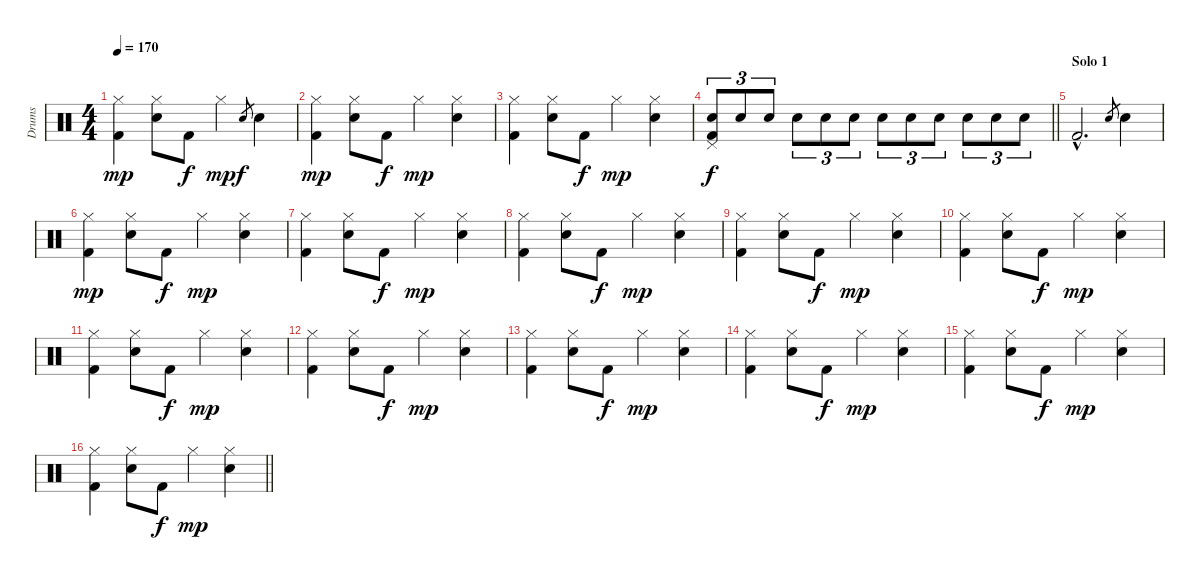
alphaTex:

\track ("Drums" "Drums") {instrument percussion}
\staff {score}
\articulation defaults
\ts (4 4)
\tempo 170
\clef neutral
\ks c
("Hi-Hat (closed)" "Kick (hit) 2").4{dy mp} ("Hi-Hat (closed)" "Electric Snare (hit)").8 "Kick (hit) 2".8{dy f} "Hi-Hat (closed)".4{dy mp} "Electric Snare (hit)".8{gr dy f} "Electric Snare (hit)".4 |
("Hi-Hat (closed)" "Kick (hit) 2").4{dy mp} ("Hi-Hat (closed)" "Electric Snare (hit)").8 "Kick (hit) 2".8{dy f} "Hi-Hat (closed)".4{dy mp} ("Hi-Hat (closed)" "Electric Snare (hit)").4 |
("Hi-Hat (closed)" "Kick (hit) 2").4 ("Hi-Hat (closed)" "Electric Snare (hit)").8 "Kick (hit) 2".8{dy f} "Hi-Hat (closed)".4{dy mp} ("Hi-Hat (closed)" "Electric Snare (hit)").4 |
\barLineRight lightlight
("Pedal Hi-Hat (hit)" "Electric Snare (hit)" "Kick (hit) 2").8{tu (3 2) dy f} "Electric Snare (hit)".8{tu (3 2)} "Electric Snare (hit)".8{tu (3 2)} "Electric Snare (hit)".8{tu (3 2)} "Electric Snare (hit)".8{tu (3 2)} "Electric Snare (hit)".8{tu (3 2)} "Electric Snare (hit)".8{tu (3 2)} "Electric Snare (hit)".8{tu (3 2)} "Electric Snare (hit)".8{tu (3 2)} "Electric Snare (hit)".8{tu (3 2)} "Electric Snare (hit)".8{tu (3 2)} "Electric Snare (hit)".8{tu (3 2)} |
\section ("" "Solo 1")
"Kick (hit) 2"{hac}.2{d} "Snare (hit) 2".8{gr} "Snare (hit) 2".4 |
("Hi-Hat (closed)" "Kick (hit) 2").4{dy mp} ("Hi-Hat (closed)" "Electric Snare (hit)").8 "Kick (hit) 2".8{dy f} "Hi-Hat (closed)".4{dy mp} ("Hi-Hat (closed)" "Electric Snare (hit)").4 |
("Hi-Hat (closed)" "Kick (hit) 2").4 ("Hi-Hat (closed)" "Electric Snare (hit)").8 "Kick (hit) 2".8{dy f} "Hi-Hat (closed)".4{dy mp} ("Hi-Hat (closed)" "Electric Snare (hit)").4 |
("Hi-Hat (closed)" "Kick (hit) 2").4 ("Hi-Hat (closed)" "Electric Snare (hit)").8 "Kick (hit) 2".8{dy f} "Hi-Hat (closed)".4{dy mp} ("Hi-Hat (closed)" "Electric Snare (hit)").4 |
("Hi-Hat (closed)" "Kick (hit) 2").4 ("Hi-Hat (closed)" "Electric Snare (hit)").8 "Kick (hit) 2".8{dy f} "Hi-Hat (closed)".4{dy mp} ("Hi-Hat (closed)" "Electric Snare (hit)").4 |
("Hi-Hat (closed)" "Kick (hit) 2").4 ("Hi-Hat (closed)" "Electric Snare (hit)").8 "Kick (hit) 2".8{dy f} "Hi-Hat (closed)".4{dy mp} ("Hi-Hat (closed)" "Electric Snare (hit)").4 |
("Hi-Hat (closed)" "Kick (hit) 2").4 ("Hi-Hat (closed)" "Electric Snare (hit)").8 "Kick (hit) 2".8{dy f} "Hi-Hat (closed)".4{dy mp} ("Hi-Hat (closed)" "Electric Snare (hit)").4 |
("Hi-Hat (closed)" "Kick (hit) 2").4 ("Hi-Hat (closed)" "Electric Snare (hit)").8 "Kick (hit) 2".8{dy f} "Hi-Hat (closed)".4{dy mp} ("Hi-Hat (closed)" "Electric Snare (hit)").4 |
("Hi-Hat (closed)" "Kick (hit) 2").4 ("Hi-Hat (closed)" "Electric Snare (hit)").8 "Kick (hit) 2".8{dy f} "Hi-Hat (closed)".4{dy mp} ("Hi-Hat (closed)" "Electric Snare (hit)").4 |
("Hi-Hat (closed)" "Kick (hit) 2").4 ("Hi-Hat (closed)" "Electric Snare (hit)").8 "Kick (hit) 2".8{dy f} "Hi-Hat (closed)".4{dy mp} ("Hi-Hat (closed)" "Electric Snare (hit)").4 |
("Hi-Hat (closed)" "Kick (hit) 2").4 ("Hi-Hat (closed)" "Electric Snare (hit)").8 "Kick (hit) 2".8{dy f} "Hi-Hat (closed)".4{dy mp} ("Hi-Hat (closed)" "Electric Snare (hit)").4 |
\barLineRight lightlight
("Hi-Hat (closed)" "Kick (hit) 2").4 ("Hi-Hat (closed)" "Electric Snare (hit)").8 "Kick (hit) 2".8{dy f} "Hi-Hat (closed)".4{dy mp} ("Hi-Hat (closed)" "Electric Snare (hit)").4
